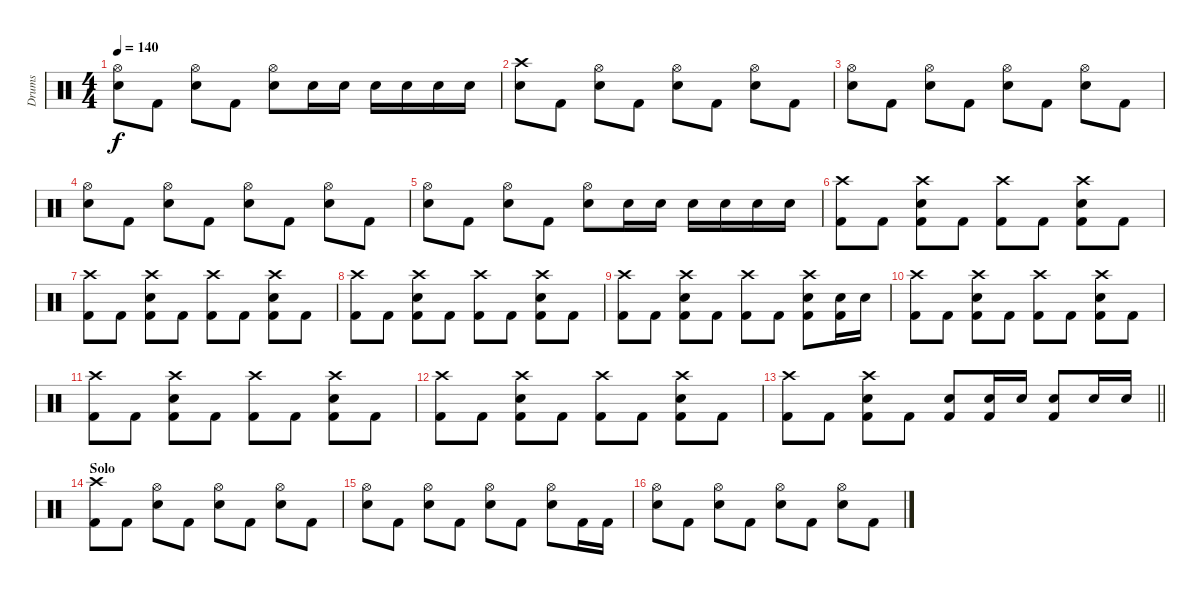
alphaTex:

\track ("Drums" "Drums") {instrument percussion}
\staff {score}
\articulation defaults
\ts (4 4)
\tempo 140
\clef neutral
\ks c
("Hi-Hat (open)" "Electric Snare (hit)").8{dy f} "Kick (hit) 2".8 ("Hi-Hat (open)" "Electric Snare (hit)").8 "Kick (hit) 2".8 ("Hi-Hat (open)" "Electric Snare (hit)").8 "Electric Snare (hit)".16 "Electric Snare (hit)".16 "Electric Snare (hit)".16 "Electric Snare (hit)".16 "Electric Snare (hit)".16 "Electric Snare (hit)".16 |
("Crash high (hit)" "Electric Snare (hit)").8 "Kick (hit) 2".8 ("Hi-Hat (open)" "Electric Snare (hit)").8 "Kick (hit) 2".8 ("Hi-Hat (open)" "Electric Snare (hit)").8 "Kick (hit) 2".8 ("Hi-Hat (open)" "Electric Snare (hit)").8 "Kick (hit) 2".8 |
("Hi-Hat (open)" "Electric Snare (hit)").8 "Kick (hit) 2".8 ("Hi-Hat (open)" "Electric Snare (hit)").8 "Kick (hit) 2".8 ("Hi-Hat (open)" "Electric Snare (hit)").8 "Kick (hit) 2".8 ("Hi-Hat (open)" "Electric Snare (hit)").8 "Kick (hit) 2".8 |
("Hi-Hat (open)" "Electric Snare (hit)").8 "Kick (hit) 2".8 ("Hi-Hat (open)" "Electric Snare (hit)").8 "Kick (hit) 2".8 ("Hi-Hat (open)" "Electric Snare (hit)").8 "Kick (hit) 2".8 ("Hi-Hat (open)" "Electric Snare (hit)").8 "Kick (hit) 2".8 |
("Hi-Hat (open)" "Electric Snare (hit)").8 "Kick (hit) 2".8 ("Hi-Hat (open)" "Electric Snare (hit)").8 "Kick (hit) 2".8 ("Hi-Hat (open)" "Electric Snare (hit)").8 "Electric Snare (hit)".16 "Electric Snare (hit)".16 "Electric Snare (hit)".16 "Electric Snare (hit)".16 "Electric Snare (hit)".16 "Electric Snare (hit)".16 |
("Crash high (hit)" "Kick (hit) 2").8 "Kick (hit) 2".8 ("Crash high (hit)" "Electric Snare (hit)" "Kick (hit) 2").8 "Kick (hit) 2".8 ("Crash high (hit)" "Kick (hit) 2").8 "Kick (hit) 2".8 ("Crash high (hit)" "Electric Snare (hit)" "Kick (hit) 2").8 "Kick (hit) 2".8 |
("Crash high (hit)" "Kick (hit) 2").8 "Kick (hit) 2".8 ("Crash high (hit)" "Electric Snare (hit)" "Kick (hit) 2").8 "Kick (hit) 2".8 ("Crash high (hit)" "Kick (hit) 2").8 "Kick (hit) 2".8 ("Crash high (hit)" "Electric Snare (hit)" "Kick (hit) 2").8 "Kick (hit) 2".8 |
("Crash high (hit)" "Kick (hit) 2").8 "Kick (hit) 2".8 ("Crash high (hit)" "Electric Snare (hit)" "Kick (hit) 2").8 "Kick (hit) 2".8 ("Crash high (hit)" "Kick (hit) 2").8 "Kick (hit) 2".8 ("Crash high (hit)" "Electric Snare (hit)" "Kick (hit) 2").8 "Kick (hit) 2".8 |
("Crash high (hit)" "Kick (hit) 2").8 "Kick (hit) 2".8 ("Crash high (hit)" "Electric Snare (hit)" "Kick (hit) 2").8 "Kick (hit) 2".8 ("Crash high (hit)" "Kick (hit) 2").8 "Kick (hit) 2".8 ("Crash high (hit)" "Electric Snare (hit)" "Kick (hit) 2").8 ("Electric Snare (hit)" "Kick (hit) 2").16 "Electric Snare (hit)".16 |
("Crash high (hit)" "Kick (hit) 2").8 "Kick (hit) 2".8 ("Crash high (hit)" "Electric Snare (hit)" "Kick (hit) 2").8 "Kick (hit) 2".8 ("Crash high (hit)" "Kick (hit) 2").8 "Kick (hit) 2".8 ("Crash high (hit)" "Electric Snare (hit)" "Kick (hit) 2").8 "Kick (hit) 2".8 |
("Crash high (hit)" "Kick (hit) 2").8 "Kick (hit) 2".8 ("Crash high (hit)" "Electric Snare (hit)" "Kick (hit) 2").8 "Kick (hit) 2".8 ("Crash high (hit)" "Kick (hit) 2").8 "Kick (hit) 2".8 ("Crash high (hit)" "Electric Snare (hit)" "Kick (hit) 2").8 "Kick (hit) 2".8 |
("Crash high (hit)" "Kick (hit) 2").8 "Kick (hit) 2".8 ("Crash high (hit)" "Electric Snare (hit)" "Kick (hit) 2").8 "Kick (hit) 2".8 ("Crash high (hit)" "Kick (hit) 2").8 "Kick (hit) 2".8 ("Crash high (hit)" "Electric Snare (hit)" "Kick (hit) 2").8 "Kick (hit) 2".8 |
\barLineRight lightlight
("Crash high (hit)" "Kick (hit) 2").8 "Kick (hit) 2".8 ("Crash high (hit)" "Electric Snare (hit)" "Kick (hit) 2").8 "Kick (hit) 2".8 ("Electric Snare (hit)" "Kick (hit) 2").8 ("Electric Snare (hit)" "Kick (hit) 2").16 "Electric Snare (hit)".16 ("Electric Snare (hit)" "Kick (hit) 2").8 "Electric Snare (hit)".16 "Electric Snare (hit)".16 |
\section ("" "Solo")
("Crash high (hit)" "Kick (hit) 2").8 "Kick (hit) 2".8 ("Hi-Hat (open)" "Electric Snare (hit)").8 "Kick (hit) 2".8 ("Hi-Hat (open)" "Electric Snare (hit)").8 "Kick (hit) 2".8 ("Hi-Hat (open)" "Electric Snare (hit)").8 "Kick (hit) 2".8 |
("Hi-Hat (open)" "Electric Snare (hit)").8 "Kick (hit) 2".8 ("Hi-Hat (open)" "Electric Snare (hit)").8 "Kick (hit) 2".8 ("Hi-Hat (open)" "Electric Snare (hit)").8 "Kick (hit) 2".8 ("Hi-Hat (open)" "Electric Snare (hit)").8 "Kick (hit) 2".16 "Kick (hit) 2".16 |
("Hi-Hat (open)" "Electric Snare (hit)").8 "Kick (hit) 2".8 ("Hi-Hat (open)" "Electric Snare (hit)").8 "Kick (hit) 2".8 ("Hi-Hat (open)" "Electric Snare (hit)").8 "Kick (hit) 2".8 ("Hi-Hat (open)" "Electric Snare (hit)").8 "Kick (hit) 2".8
